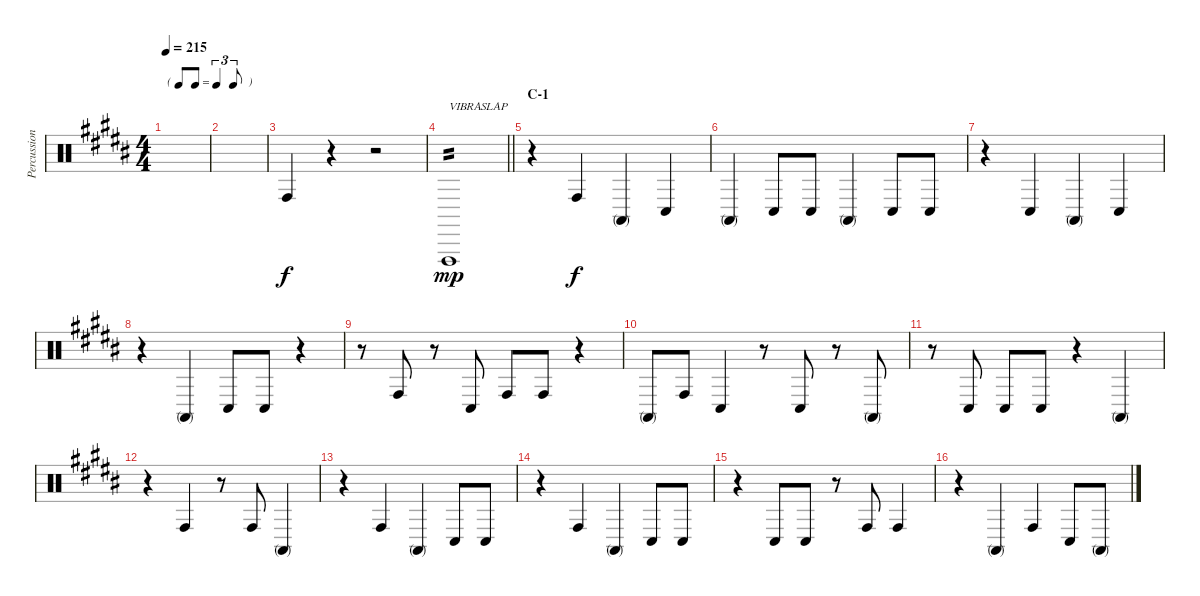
\track ("Percussion A (Tainaka Ritsu)" "Percussion") {instrument percussion}
\staff {score}
\articulation defaults
\ts (4 4)
\tf triplet8th
\tempo 215
\clef neutral
\ks b
|
|
"Conga high (hit)".4 r.4 r.2 |
\barLineRight lightlight "Vibraslap (hit)".1{txt "VIBRASLAP" tp 2 dy mp}
|
\section ("" "C-1")
r.4 "Conga high (hit)".4{dy f} "Conga high (mute)".4 "Conga low (hit)".4 |
"Conga high (mute)".4 "Conga low (hit)".8 "Conga low (hit)".8 "Conga high (mute)".4 "Conga low (hit)".8 "Conga low (hit)".8 |
r.4 "Conga low (hit)".4 "Conga high (mute)".4 "Conga low (hit)".4 |
r.4 "Conga high (mute)".4 "Conga low (hit)".8 "Conga low (hit)".8 r.4 |
r.8 "Conga high (hit)".8 r.8 "Conga low (hit)".8 "Conga high (hit)".8 "Conga high (hit)".8 r.4 |
"Conga high (mute)".8 "Conga high (hit)".8 "Conga low (hit)".4 r.8 "Conga low (hit)".8 r.8 "Conga high (mute)".8 |
r.8 "Conga low (hit)".8 "Conga low (hit)".8 "Conga low (hit)".8 r.4 "Conga high (mute)".4 |
r.4 "Conga high (hit)".4 r.8 "Conga high (hit)".8 "Conga high (mute)".4 |
r.4 "Conga high (hit)".4 "Conga high (mute)".4 "Conga low (hit)".8 "Conga low (hit)".8 |
r.4 "Conga high (hit)".4 "Conga high (mute)".4 "Conga low (hit)".8 "Conga low (hit)".8 |
r.4 "Conga low (hit)".8 "Conga low (hit)".8 r.8 "Conga high (hit)".8 "Conga high (hit)".4 |
r.4 "Conga high (mute)".4 "Conga high (hit)".4 "Conga low (hit)".8 "Conga high (mute)".8
